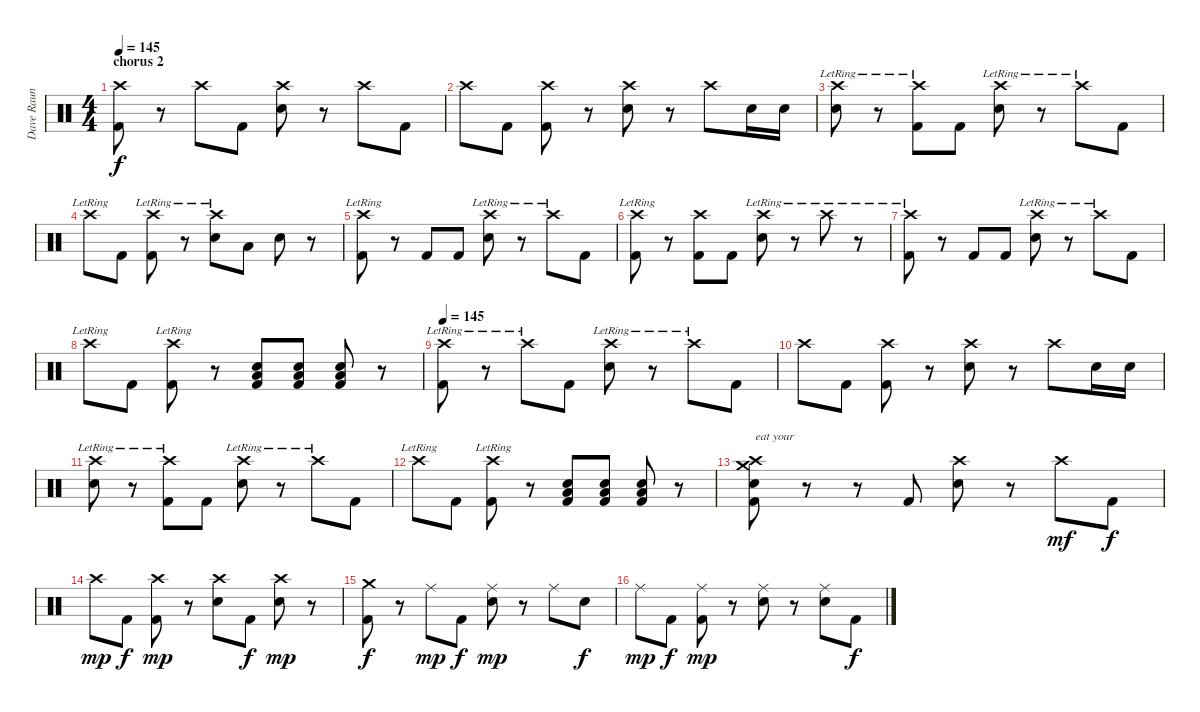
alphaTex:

\track ("Dave Raun" "Dave Raun") {instrument percussion}
\staff {score}
\articulation defaults
\ts (4 4)
\section ("" "chorus 2")
\tempo 145
\clef neutral
\ks c
("Crash high (hit)" "Kick (hit) 2").8{dy f} r.8 "Crash high (hit)".8 "Kick (hit) 2".8 ("Crash high (hit)" "Electric Snare (hit)").8 r.8 "Crash high (hit)".8 "Kick (hit) 2".8 |
"Crash high (hit)".8 "Kick (hit) 2".8 ("Crash high (hit)" "Kick (hit) 2").8 r.8 ("Crash high (hit)" "Electric Snare (hit)").8 r.8 "Crash high (hit)".8 "Electric Snare (hit)".16 "Electric Snare (hit)".16 |
("Crash high (hit)"{lr} "Electric Snare (hit)").8 r.8 ("Crash high (hit)"{lr} "Kick (hit) 2").8 "Kick (hit) 2".8 ("Crash high (hit)"{lr} "Electric Snare (hit)").8 r.8 "Crash high (hit)"{lr}.8 "Kick (hit) 2".8 |
"Crash high (hit)"{lr}.8 "Kick (hit) 2".8 ("Crash high (hit)"{lr} "Kick (hit) 2").8 r.8 ("Crash high (hit)"{lr} "Electric Snare (hit)").8 "Low Floor Tom (hit)".8 "Electric Snare (hit)".8 r.8 |
("Crash high (hit)"{lr} "Kick (hit) 2").8 r.8 "Kick (hit) 2".8 "Kick (hit) 2".8 ("Crash high (hit)"{lr} "Electric Snare (hit)").8 r.8 "Crash high (hit)"{lr}.8 "Kick (hit) 2".8 |
("Crash high (hit)"{lr} "Kick (hit) 2").8 r.8 ("Crash high (hit)" "Kick (hit) 2").8 "Kick (hit) 2".8 ("Crash high (hit)"{lr} "Electric Snare (hit)").8 r.8 "Crash high (hit)"{lr}.8 r.8 |
("Crash high (hit)"{lr} "Kick (hit) 2").8 r.8 "Kick (hit) 2".8 "Kick (hit) 2".8 ("Crash high (hit)"{lr} "Electric Snare (hit)").8 r.8 "Crash high (hit)"{lr}.8 "Kick (hit) 2".8 |
"Crash high (hit)"{lr}.8 "Kick (hit) 2".8 ("Crash high (hit)"{lr} "Kick (hit) 2").8 r.8 ("Low Tom (hit)" "Electric Snare (hit)" "Kick (hit) 2").8 ("Low Floor Tom (hit)" "Electric Snare (hit)" "Kick (hit) 2").8 ("Low Tom (hit)" "Electric Snare (hit)" "Kick (hit) 2").8 r.8 |
\tempo 145
("Crash high (hit)"{lr} "Kick (hit) 2").8 r.8 "Crash high (hit)"{lr}.8 "Kick (hit) 2".8 ("Crash high (hit)"{lr} "Electric Snare (hit)").8 r.8 "Crash high (hit)"{lr}.8 "Kick (hit) 2".8 |
"Crash high (hit)".8 "Kick (hit) 2".8 ("Crash high (hit)" "Kick (hit) 2").8 r.8 ("Crash high (hit)" "Electric Snare (hit)").8 r.8 "Crash high (hit)".8 "Electric Snare (hit)".16 "Electric Snare (hit)".16 |
("Crash high (hit)"{lr} "Electric Snare (hit)").8 r.8 ("Crash high (hit)"{lr} "Kick (hit) 2").8 "Kick (hit) 2".8 ("Crash high (hit)"{lr} "Electric Snare (hit)").8 r.8 "Crash high (hit)"{lr}.8 "Kick (hit) 2".8 |
"Crash high (hit)"{lr}.8 "Kick (hit) 2".8 ("Crash high (hit)"{lr} "Kick (hit) 2").8 r.8 ("Low Tom (hit)" "Electric Snare (hit)" "Kick (hit) 2").8 ("Low Floor Tom (hit)" "Electric Snare (hit)" "Kick (hit) 2").8 ("Low Tom (hit)" "Electric Snare (hit)" "Kick (hit) 2").8 r.8 |
("Crash high (hit)" "Electric Snare (hit)" "Kick (hit) 2" "Crash medium (hit)").8{txt "eat your"} r.8 r.8 "Kick (hit) 2".8 ("Crash high (hit)" "Electric Snare (hit)").8 r.8 "Crash high (hit)".8{dy mf} "Kick (hit) 2".8{dy f} |
"Crash high (hit)".8{dy mp} "Kick (hit) 2".8{dy f} ("Crash high (hit)" "Kick (hit) 2").8{dy mp} r.8 ("Crash high (hit)" "Electric Snare (hit)").8 "Kick (hit) 2".8{dy f} ("Crash high (hit)" "Electric Snare (hit)").8{dy mp} r.8 |
("Crash medium (hit)" "Kick (hit) 2").8{dy f} r.8 "Ride (middle)".8{dy mp} "Kick (hit) 2".8{dy f} ("Ride (middle)" "Electric Snare (hit)").8{dy mp} r.8 "Ride (middle)".8 "Electric Snare (hit)".8{dy f} |
"Ride (middle)".8{dy mp} "Kick (hit) 2".8{dy f} ("Ride (middle)" "Kick (hit) 2").8{dy mp} r.8 ("Ride (middle)" "Electric Snare (hit)").8 r.8 ("Ride (middle)" "Electric Snare (hit)").8 "Kick (hit) 2".8{dy f}
